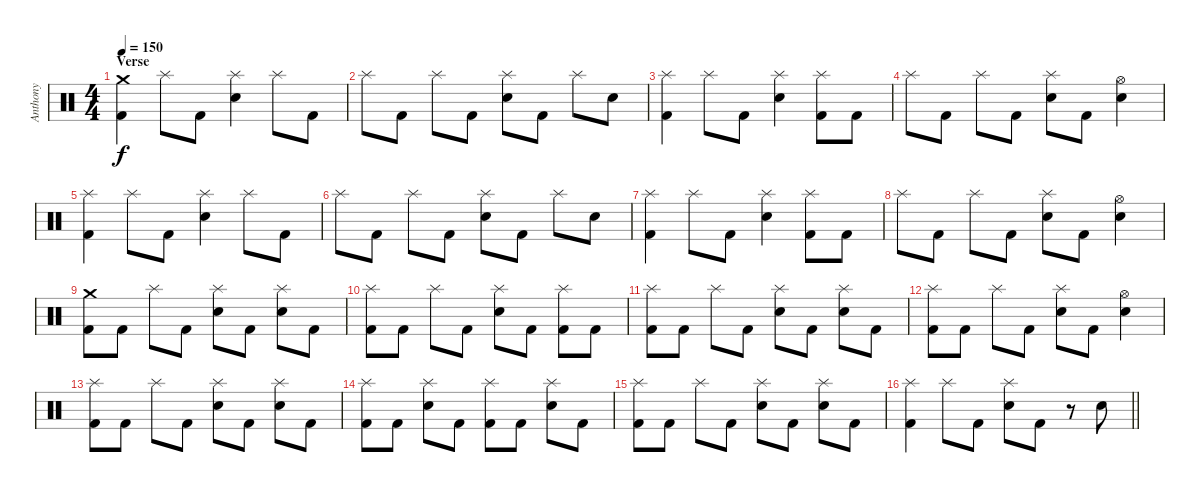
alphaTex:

\track ("Anthony" "Anthony") {instrument percussion}
\staff {score}
\articulation defaults
\ts (4 4)
\section ("" "Verse")
\tempo 150
\clef neutral
\ks c
("Crash medium (hit)" "Kick (hit) 2").4{dy f} "Splash (hit)".8 "Kick (hit) 2".8 ("Splash (hit)" "Electric Snare (hit)").4 "Splash (hit)".8 "Kick (hit) 2".8 |
"Splash (hit)".8 "Kick (hit) 2".8 "Splash (hit)".8 "Kick (hit) 2".8 ("Splash (hit)" "Electric Snare (hit)").8 "Kick (hit) 2".8 "Splash (hit)".8 "Electric Snare (hit)".8 |
("Splash (hit)" "Kick (hit) 2").4 "Splash (hit)".8 "Kick (hit) 2".8 ("Splash (hit)" "Electric Snare (hit)").4 ("Splash (hit)" "Kick (hit) 2").8 "Kick (hit) 2".8 |
"Splash (hit)".8 "Kick (hit) 2".8 "Splash (hit)".8 "Kick (hit) 2".8 ("Splash (hit)" "Electric Snare (hit)").8 "Kick (hit) 2".8 ("Hi-Hat (open)" "Electric Snare (hit)").4 |
("Splash (hit)" "Kick (hit) 2").4 "Splash (hit)".8 "Kick (hit) 2".8 ("Splash (hit)" "Electric Snare (hit)").4 "Splash (hit)".8 "Kick (hit) 2".8 |
"Splash (hit)".8 "Kick (hit) 2".8 "Splash (hit)".8 "Kick (hit) 2".8 ("Splash (hit)" "Electric Snare (hit)").8 "Kick (hit) 2".8 "Splash (hit)".8 "Electric Snare (hit)".8 |
("Splash (hit)" "Kick (hit) 2").4 "Splash (hit)".8 "Kick (hit) 2".8 ("Splash (hit)" "Electric Snare (hit)").4 ("Splash (hit)" "Kick (hit) 2").8 "Kick (hit) 2".8 |
"Splash (hit)".8 "Kick (hit) 2".8 "Splash (hit)".8 "Kick (hit) 2".8 ("Splash (hit)" "Electric Snare (hit)").8 "Kick (hit) 2".8 ("Hi-Hat (open)" "Electric Snare (hit)").4 |
("Crash medium (hit)" "Kick (hit) 2").8 "Kick (hit) 2".8 "Splash (hit)".8 "Kick (hit) 2".8 ("Splash (hit)" "Electric Snare (hit)").8 "Kick (hit) 2".8 ("Splash (hit)" "Electric Snare (hit)").8 "Kick (hit) 2".8 |
("Splash (hit)" "Kick (hit) 2").8 "Kick (hit) 2".8 "Splash (hit)".8 "Kick (hit) 2".8 ("Splash (hit)" "Electric Snare (hit)").8 "Kick (hit) 2".8 ("Splash (hit)" "Kick (hit) 2").8 "Kick (hit) 2".8 |
("Splash (hit)" "Kick (hit) 2").8 "Kick (hit) 2".8 "Splash (hit)".8 "Kick (hit) 2".8 ("Splash (hit)" "Electric Snare (hit)").8 "Kick (hit) 2".8 ("Splash (hit)" "Electric Snare (hit)").8 "Kick (hit) 2".8 |
("Splash (hit)" "Kick (hit) 2").8 "Kick (hit) 2".8 "Splash (hit)".8 "Kick (hit) 2".8 ("Splash (hit)" "Electric Snare (hit)").8 "Kick (hit) 2".8 ("Hi-Hat (open)" "Electric Snare (hit)").4 |
("Splash (hit)" "Kick (hit) 2").8 "Kick (hit) 2".8 "Splash (hit)".8 "Kick (hit) 2".8 ("Splash (hit)" "Electric Snare (hit)").8 "Kick (hit) 2".8 ("Splash (hit)" "Electric Snare (hit)").8 "Kick (hit) 2".8 |
("Splash (hit)" "Kick (hit) 2").8 "Kick (hit) 2".8 ("Splash (hit)" "Electric Snare (hit)").8 "Kick (hit) 2".8 ("Splash (hit)" "Kick (hit) 2").8 "Kick (hit) 2".8 ("Splash (hit)" "Electric Snare (hit)").8 "Kick (hit) 2".8 |
("Splash (hit)" "Kick (hit) 2").8 "Kick (hit) 2".8 "Splash (hit)".8 "Kick (hit) 2".8 ("Splash (hit)" "Electric Snare (hit)").8 "Kick (hit) 2".8 ("Splash (hit)" "Electric Snare (hit)").8 "Kick (hit) 2".8 |
\barLineRight lightlight
("Splash (hit)" "Kick (hit) 2").4 "Splash (hit)".8 "Kick (hit) 2".8 ("Splash (hit)" "Electric Snare (hit)").8 "Kick (hit) 2".8 r.8 "Electric Snare (hit)".8
